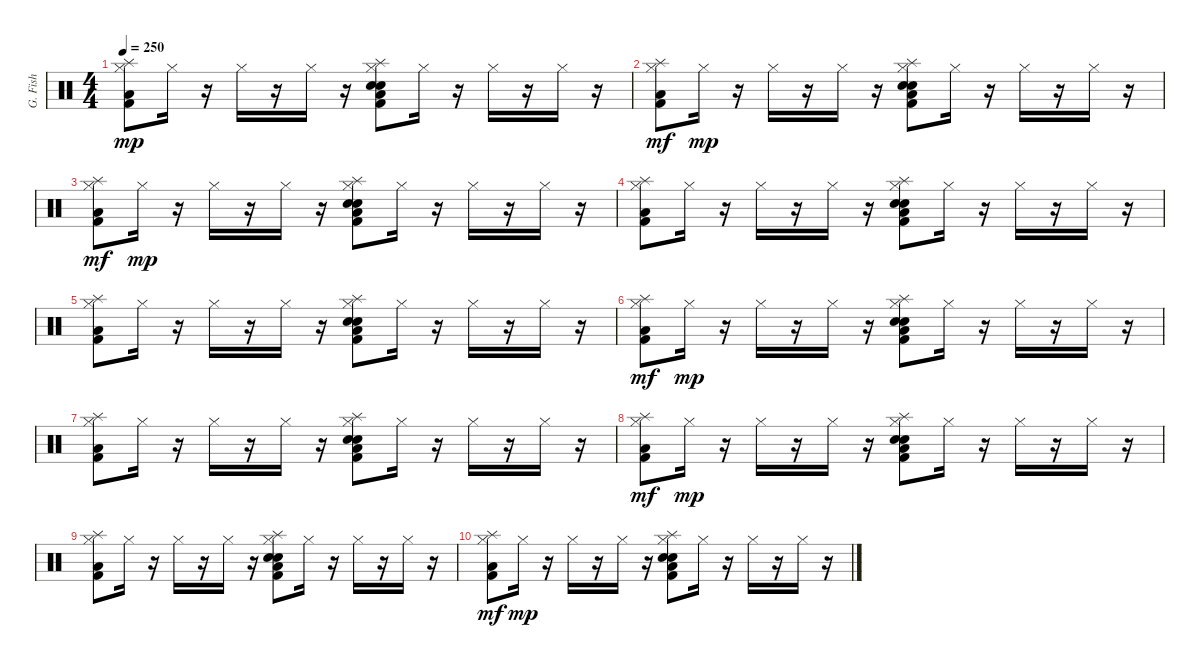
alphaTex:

\track ("G. Fish" "G. Fish") {instrument percussion}
\staff {score}
\articulation defaults
\ts (4 4)
\tempo 250
\clef neutral
\ks c
("Kick (hit) 2" "Splash (hit)" "Hi-Hat (closed)" "Low Floor Tom (hit)").8{dy mp} "Hi-Hat (closed)".16 r.16 "Hi-Hat (closed)".16 r.16 "Hi-Hat (closed)".16 r.16 ("Snare (hit) 2" "Kick (hit) 2" "Splash (hit)" "Electric Snare (hit)" "Low Floor Tom (hit)" "Hi-Hat (closed)").8 "Hi-Hat (closed)".16 r.16 "Hi-Hat (closed)".16 r.16 "Hi-Hat (closed)".16 r.16 |
("Hi-Hat (closed)" "Low Floor Tom (hit)" "Kick (hit) 2" "Splash (hit)").8{dy mf} "Hi-Hat (closed)".16{dy mp} r.16 "Hi-Hat (closed)".16 r.16 "Hi-Hat (closed)".16 r.16 ("Snare (hit) 2" "Electric Snare (hit)" "Kick (hit) 2" "Splash (hit)" "Low Floor Tom (hit)" "Hi-Hat (closed)").8 "Hi-Hat (closed)".16 r.16 "Hi-Hat (closed)".16 r.16 "Hi-Hat (closed)".16 r.16 |
("Low Floor Tom (hit)" "Hi-Hat (closed)" "Kick (hit) 2" "Splash (hit)").8{dy mf} "Hi-Hat (closed)".16{dy mp} r.16 "Hi-Hat (closed)".16 r.16 "Hi-Hat (closed)".16 r.16 ("Low Floor Tom (hit)" "Snare (hit) 2" "Electric Snare (hit)" "Kick (hit) 2" "Splash (hit)" "Hi-Hat (closed)").8 "Hi-Hat (closed)".16 r.16 "Hi-Hat (closed)".16 r.16 "Hi-Hat (closed)".16 r.16 |
("Low Floor Tom (hit)" "Kick (hit) 2" "Splash (hit)" "Hi-Hat (closed)").8 "Hi-Hat (closed)".16 r.16 "Hi-Hat (closed)".16 r.16 "Hi-Hat (closed)".16 r.16 ("Snare (hit) 2" "Electric Snare (hit)" "Kick (hit) 2" "Splash (hit)" "Low Floor Tom (hit)" "Hi-Hat (closed)").8 "Hi-Hat (closed)".16 r.16 "Hi-Hat (closed)".16 r.16 "Hi-Hat (closed)".16 r.16 |
("Kick (hit) 2" "Splash (hit)" "Hi-Hat (closed)" "Low Floor Tom (hit)").8 "Hi-Hat (closed)".16 r.16 "Hi-Hat (closed)".16 r.16 "Hi-Hat (closed)".16 r.16 ("Snare (hit) 2" "Kick (hit) 2" "Splash (hit)" "Electric Snare (hit)" "Low Floor Tom (hit)" "Hi-Hat (closed)").8 "Hi-Hat (closed)".16 r.16 "Hi-Hat (closed)".16 r.16 "Hi-Hat (closed)".16 r.16 |
("Hi-Hat (closed)" "Low Floor Tom (hit)" "Kick (hit) 2" "Splash (hit)").8{dy mf} "Hi-Hat (closed)".16{dy mp} r.16 "Hi-Hat (closed)".16 r.16 "Hi-Hat (closed)".16 r.16 ("Snare (hit) 2" "Electric Snare (hit)" "Kick (hit) 2" "Splash (hit)" "Low Floor Tom (hit)" "Hi-Hat (closed)").8 "Hi-Hat (closed)".16 r.16 "Hi-Hat (closed)".16 r.16 "Hi-Hat (closed)".16 r.16 |
("Kick (hit) 2" "Splash (hit)" "Hi-Hat (closed)" "Low Floor Tom (hit)").8 "Hi-Hat (closed)".16 r.16 "Hi-Hat (closed)".16 r.16 "Hi-Hat (closed)".16 r.16 ("Snare (hit) 2" "Kick (hit) 2" "Splash (hit)" "Electric Snare (hit)" "Low Floor Tom (hit)" "Hi-Hat (closed)").8 "Hi-Hat (closed)".16 r.16 "Hi-Hat (closed)".16 r.16 "Hi-Hat (closed)".16 r.16 |
("Hi-Hat (closed)" "Low Floor Tom (hit)" "Kick (hit) 2" "Splash (hit)").8{dy mf} "Hi-Hat (closed)".16{dy mp} r.16 "Hi-Hat (closed)".16 r.16 "Hi-Hat (closed)".16 r.16 ("Snare (hit) 2" "Electric Snare (hit)" "Kick (hit) 2" "Splash (hit)" "Low Floor Tom (hit)" "Hi-Hat (closed)").8 "Hi-Hat (closed)".16 r.16 "Hi-Hat (closed)".16 r.16 "Hi-Hat (closed)".16 r.16 |
("Kick (hit) 2" "Splash (hit)" "Hi-Hat (closed)" "Low Floor Tom (hit)").8 "Hi-Hat (closed)".16 r.16 "Hi-Hat (closed)".16 r.16 "Hi-Hat (closed)".16 r.16 ("Snare (hit) 2" "Kick (hit) 2" "Splash (hit)" "Electric Snare (hit)" "Low Floor Tom (hit)" "Hi-Hat (closed)").8 "Hi-Hat (closed)".16 r.16 "Hi-Hat (closed)".16 r.16 "Hi-Hat (closed)".16 r.16 |
("Hi-Hat (closed)" "Low Floor Tom (hit)" "Kick (hit) 2" "Splash (hit)").8{dy mf} "Hi-Hat (closed)".16{dy mp} r.16 "Hi-Hat (closed)".16 r.16 "Hi-Hat (closed)".16 r.16 ("Snare (hit) 2" "Electric Snare (hit)" "Kick (hit) 2" "Splash (hit)" "Low Floor Tom (hit)" "Hi-Hat (closed)").8 "Hi-Hat (closed)".16 r.16 "Hi-Hat (closed)".16 r.16 "Hi-Hat (closed)".16 r.16
